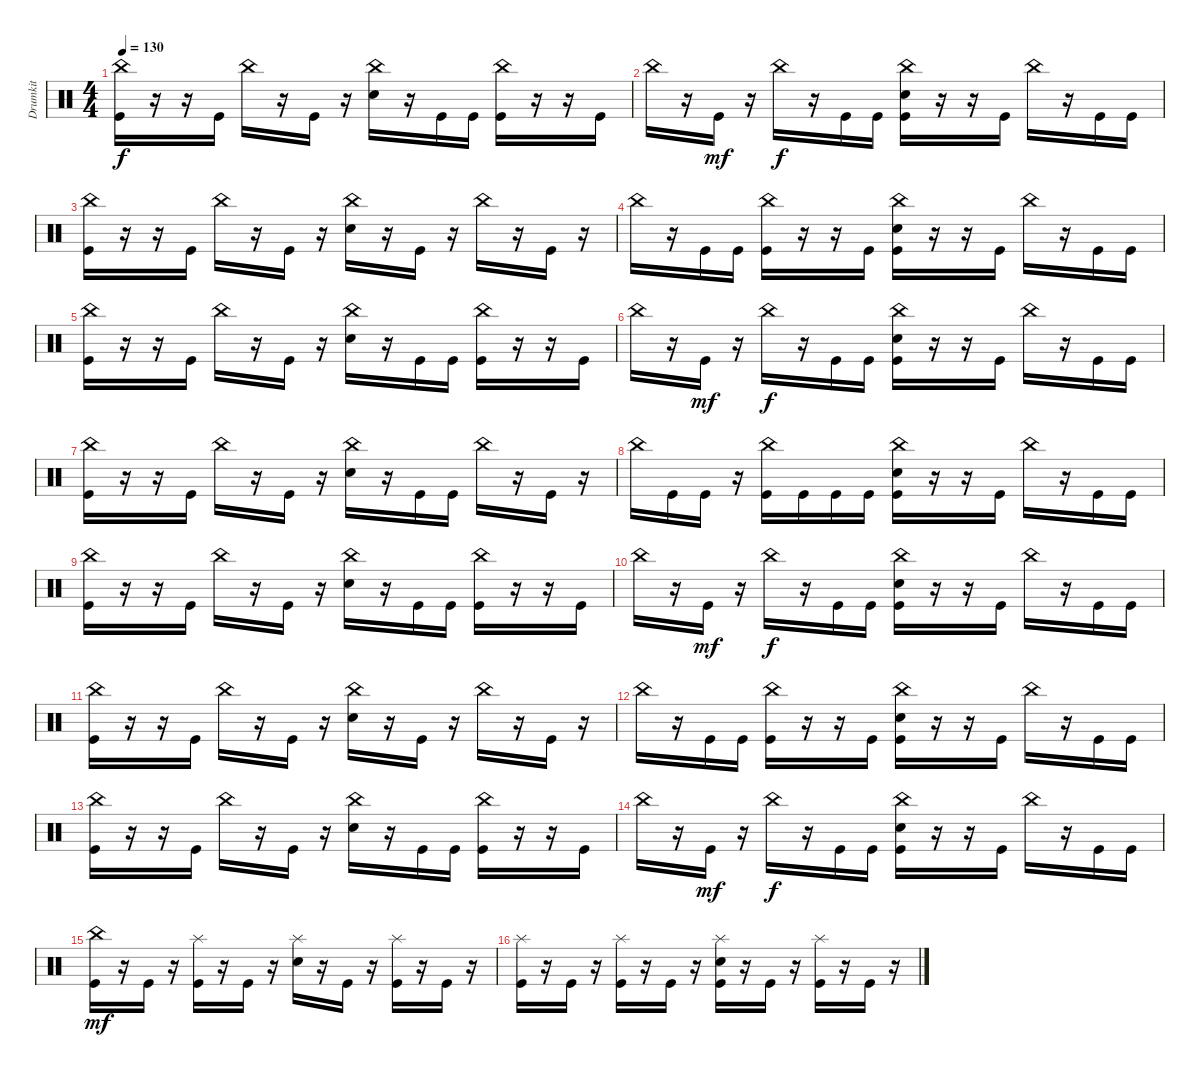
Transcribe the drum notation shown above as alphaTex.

\track ("Drumkit" "Drumkit") {instrument percussion}
\staff {score}
\articulation defaults
\ts (4 4)
\tempo 130
\clef neutral
\ks c
("China (hit)" "Kick (hit)").16{dy f} r.16 r.16 "Kick (hit)".16 "China (hit)".16 r.16 "Kick (hit)".16 r.16 ("China (hit)" "Snare (hit) 2").16 r.16 "Kick (hit)".16 "Kick (hit)".16 ("China (hit)" "Kick (hit)").16 r.16 r.16 "Kick (hit)".16 |
"China (hit)".16 r.16 "Kick (hit)".16{dy mf} r.16 "China (hit)".16{dy f} r.16 "Kick (hit)".16 "Kick (hit)".16 ("China (hit)" "Snare (hit) 2" "Kick (hit)").16 r.16 r.16 "Kick (hit)".16 "China (hit)".16 r.16 "Kick (hit)".16 "Kick (hit)".16 |
("China (hit)" "Kick (hit)").16 r.16 r.16 "Kick (hit)".16 "China (hit)".16 r.16 "Kick (hit)".16 r.16 ("China (hit)" "Snare (hit) 2").16 r.16 "Kick (hit)".16 r.16 "China (hit)".16 r.16 "Kick (hit)".16 r.16 |
"China (hit)".16 r.16 "Kick (hit)".16 "Kick (hit)".16 ("China (hit)" "Kick (hit)").16 r.16 r.16 "Kick (hit)".16 ("China (hit)" "Snare (hit) 2" "Kick (hit)").16 r.16 r.16 "Kick (hit)".16 "China (hit)".16 r.16 "Kick (hit)".16 "Kick (hit)".16 |
("China (hit)" "Kick (hit)").16 r.16 r.16 "Kick (hit)".16 "China (hit)".16 r.16 "Kick (hit)".16 r.16 ("China (hit)" "Snare (hit) 2").16 r.16 "Kick (hit)".16 "Kick (hit)".16 ("China (hit)" "Kick (hit)").16 r.16 r.16 "Kick (hit)".16 |
"China (hit)".16 r.16 "Kick (hit)".16{dy mf} r.16 "China (hit)".16{dy f} r.16 "Kick (hit)".16 "Kick (hit)".16 ("China (hit)" "Snare (hit) 2" "Kick (hit)").16 r.16 r.16 "Kick (hit)".16 "China (hit)".16 r.16 "Kick (hit)".16 "Kick (hit)".16 |
("China (hit)" "Kick (hit)").16 r.16 r.16 "Kick (hit)".16 "China (hit)".16 r.16 "Kick (hit)".16 r.16 ("China (hit)" "Snare (hit) 2").16 r.16 "Kick (hit)".16 "Kick (hit)".16 "China (hit)".16 r.16 "Kick (hit)".16 r.16 |
"China (hit)".16 "Kick (hit)".16 "Kick (hit)".16 r.16 ("China (hit)" "Kick (hit)").16 "Kick (hit)".16 "Kick (hit)".16 "Kick (hit)".16 ("China (hit)" "Snare (hit) 2" "Kick (hit)").16 r.16 r.16 "Kick (hit)".16 "China (hit)".16 r.16 "Kick (hit)".16 "Kick (hit)".16 |
("China (hit)" "Kick (hit)").16 r.16 r.16 "Kick (hit)".16 "China (hit)".16 r.16 "Kick (hit)".16 r.16 ("China (hit)" "Snare (hit) 2").16 r.16 "Kick (hit)".16 "Kick (hit)".16 ("China (hit)" "Kick (hit)").16 r.16 r.16 "Kick (hit)".16 |
"China (hit)".16 r.16 "Kick (hit)".16{dy mf} r.16 "China (hit)".16{dy f} r.16 "Kick (hit)".16 "Kick (hit)".16 ("China (hit)" "Snare (hit) 2" "Kick (hit)").16 r.16 r.16 "Kick (hit)".16 "China (hit)".16 r.16 "Kick (hit)".16 "Kick (hit)".16 |
("China (hit)" "Kick (hit)").16 r.16 r.16 "Kick (hit)".16 "China (hit)".16 r.16 "Kick (hit)".16 r.16 ("China (hit)" "Snare (hit) 2").16 r.16 "Kick (hit)".16 r.16 "China (hit)".16 r.16 "Kick (hit)".16 r.16 |
"China (hit)".16 r.16 "Kick (hit)".16 "Kick (hit)".16 ("China (hit)" "Kick (hit)").16 r.16 r.16 "Kick (hit)".16 ("China (hit)" "Snare (hit) 2" "Kick (hit)").16 r.16 r.16 "Kick (hit)".16 "China (hit)".16 r.16 "Kick (hit)".16 "Kick (hit)".16 |
("China (hit)" "Kick (hit)").16 r.16 r.16 "Kick (hit)".16 "China (hit)".16 r.16 "Kick (hit)".16 r.16 ("China (hit)" "Snare (hit) 2").16 r.16 "Kick (hit)".16 "Kick (hit)".16 ("China (hit)" "Kick (hit)").16 r.16 r.16 "Kick (hit)".16 |
"China (hit)".16 r.16 "Kick (hit)".16{dy mf} r.16 "China (hit)".16{dy f} r.16 "Kick (hit)".16 "Kick (hit)".16 ("China (hit)" "Snare (hit) 2" "Kick (hit)").16 r.16 r.16 "Kick (hit)".16 "China (hit)".16 r.16 "Kick (hit)".16 "Kick (hit)".16 |
("China (hit)" "Kick (hit)").16{dy mf} r.16 "Kick (hit)".16 r.16 ("Splash (hit)" "Kick (hit)").16 r.16 "Kick (hit)".16 r.16 ("Splash (hit)" "Snare (hit) 2").16 r.16 "Kick (hit)".16 r.16 ("Splash (hit)" "Kick (hit)").16 r.16 "Kick (hit)".16 r.16 |
("Splash (hit)" "Kick (hit)").16 r.16 "Kick (hit)".16 r.16 ("Splash (hit)" "Kick (hit)").16 r.16 "Kick (hit)".16 r.16 ("Splash (hit)" "Kick (hit)" "Snare (hit) 2").16 r.16 "Kick (hit)".16 r.16 ("Splash (hit)" "Kick (hit)").16 r.16 "Kick (hit)".16 r.16
